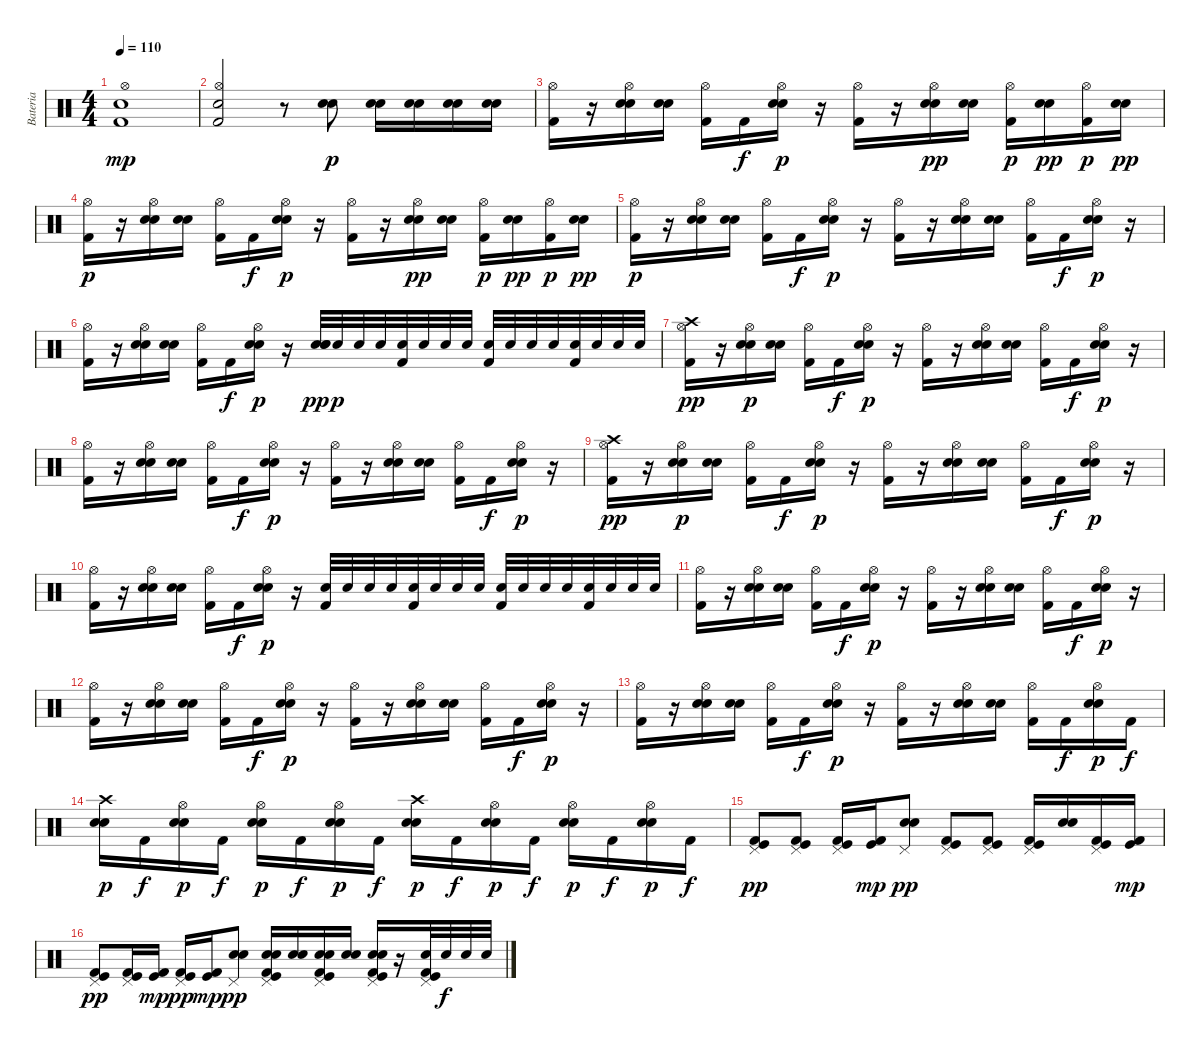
\track ("Bateria" "Bateria") {instrument percussion}
\staff {score}
\articulation defaults
\ts (4 4)
\tempo 110
\clef neutral
\ks c
("Kick (hit) 2" "Hi-Hat (open)" "Electric Snare (hit)").1{dy mp} |
("Kick (hit) 2" "Hi-Hat (open)" "Electric Snare (hit)").2 r.8 ("Electric Snare (hit)" "Snare (hit) 2").8{dy p} ("Electric Snare (hit)" "Snare (hit) 2").16 ("Electric Snare (hit)" "Snare (hit) 2").16 ("Electric Snare (hit)" "Snare (hit) 2").16 ("Electric Snare (hit)" "Snare (hit) 2").16 |
("Hi-Hat (open)" "Kick (hit) 2").16 r.16 ("Hi-Hat (open)" "Electric Snare (hit)" "Snare (hit) 2").16 ("Electric Snare (hit)" "Snare (hit) 2").16 ("Hi-Hat (open)" "Kick (hit) 2").16 "Kick (hit) 2".16{dy f} ("Hi-Hat (open)" "Electric Snare (hit)" "Snare (hit) 2").16{dy p} r.16 ("Hi-Hat (open)" "Kick (hit) 2").16 r.16 ("Hi-Hat (open)" "Electric Snare (hit)" "Snare (hit) 2").16{dy pp} ("Electric Snare (hit)" "Snare (hit) 2").16 ("Hi-Hat (open)" "Kick (hit) 2").16{dy p} ("Electric Snare (hit)" "Snare (hit) 2").16{dy pp} ("Hi-Hat (open)" "Kick (hit) 2").16{dy p} ("Electric Snare (hit)" "Snare (hit) 2").16{dy pp} |
("Hi-Hat (open)" "Kick (hit) 2").16{dy p} r.16 ("Hi-Hat (open)" "Electric Snare (hit)" "Snare (hit) 2").16 ("Electric Snare (hit)" "Snare (hit) 2").16 ("Hi-Hat (open)" "Kick (hit) 2").16 "Kick (hit) 2".16{dy f} ("Hi-Hat (open)" "Electric Snare (hit)" "Snare (hit) 2").16{dy p} r.16 ("Hi-Hat (open)" "Kick (hit) 2").16 r.16 ("Hi-Hat (open)" "Electric Snare (hit)" "Snare (hit) 2").16{dy pp} ("Electric Snare (hit)" "Snare (hit) 2").16 ("Hi-Hat (open)" "Kick (hit) 2").16{dy p} ("Electric Snare (hit)" "Snare (hit) 2").16{dy pp} ("Hi-Hat (open)" "Kick (hit) 2").16{dy p} ("Electric Snare (hit)" "Snare (hit) 2").16{dy pp} |
("Hi-Hat (open)" "Kick (hit) 2").16{dy p} r.16 ("Hi-Hat (open)" "Electric Snare (hit)" "Snare (hit) 2").16 ("Electric Snare (hit)" "Snare (hit) 2").16 ("Hi-Hat (open)" "Kick (hit) 2").16 "Kick (hit) 2".16{dy f} ("Hi-Hat (open)" "Electric Snare (hit)" "Snare (hit) 2").16{dy p} r.16 ("Hi-Hat (open)" "Kick (hit) 2").16 r.16 ("Hi-Hat (open)" "Electric Snare (hit)" "Snare (hit) 2").16 ("Electric Snare (hit)" "Snare (hit) 2").16 ("Hi-Hat (open)" "Kick (hit) 2").16 "Kick (hit) 2".16{dy f} ("Hi-Hat (open)" "Electric Snare (hit)" "Snare (hit) 2").16{dy p} r.16 |
("Hi-Hat (open)" "Kick (hit) 2").16 r.16 ("Hi-Hat (open)" "Electric Snare (hit)" "Snare (hit) 2").16 ("Electric Snare (hit)" "Snare (hit) 2").16 ("Hi-Hat (open)" "Kick (hit) 2").16 "Kick (hit) 2".16{dy f} ("Hi-Hat (open)" "Electric Snare (hit)" "Snare (hit) 2").16{dy p} r.16 ("Electric Snare (hit)" "Electric Snare (hit)" "Snare (hit) 2").32{dy pp} "Electric Snare (hit)".32{dy p} "Electric Snare (hit)".32 "Electric Snare (hit)".32 ("Kick (hit) 2" "Electric Snare (hit)").32 "Electric Snare (hit)".32 "Electric Snare (hit)".32 "Electric Snare (hit)".32 ("Kick (hit) 2" "Electric Snare (hit)").32 "Electric Snare (hit)".32 "Electric Snare (hit)".32 "Electric Snare (hit)".32 ("Kick (hit) 2" "Electric Snare (hit)").32 "Electric Snare (hit)".32 "Electric Snare (hit)".32 "Electric Snare (hit)".32 |
("Hi-Hat (open)" "Kick (hit) 2" "Crash high (hit)").16{dy pp} r.16 ("Hi-Hat (open)" "Electric Snare (hit)" "Snare (hit) 2").16{dy p} ("Electric Snare (hit)" "Snare (hit) 2").16 ("Hi-Hat (open)" "Kick (hit) 2").16 "Kick (hit) 2".16{dy f} ("Hi-Hat (open)" "Electric Snare (hit)" "Snare (hit) 2").16{dy p} r.16 ("Hi-Hat (open)" "Kick (hit) 2").16 r.16 ("Hi-Hat (open)" "Electric Snare (hit)" "Snare (hit) 2").16 ("Electric Snare (hit)" "Snare (hit) 2").16 ("Hi-Hat (open)" "Kick (hit) 2").16 "Kick (hit) 2".16{dy f} ("Hi-Hat (open)" "Electric Snare (hit)" "Snare (hit) 2").16{dy p} r.16 |
("Hi-Hat (open)" "Kick (hit) 2").16 r.16 ("Hi-Hat (open)" "Electric Snare (hit)" "Snare (hit) 2").16 ("Electric Snare (hit)" "Snare (hit) 2").16 ("Hi-Hat (open)" "Kick (hit) 2").16 "Kick (hit) 2".16{dy f} ("Hi-Hat (open)" "Electric Snare (hit)" "Snare (hit) 2").16{dy p} r.16 ("Hi-Hat (open)" "Kick (hit) 2").16 r.16 ("Hi-Hat (open)" "Electric Snare (hit)" "Snare (hit) 2").16 ("Electric Snare (hit)" "Snare (hit) 2").16 ("Hi-Hat (open)" "Kick (hit) 2").16 "Kick (hit) 2".16{dy f} ("Hi-Hat (open)" "Electric Snare (hit)" "Snare (hit) 2").16{dy p} r.16 |
("Hi-Hat (open)" "Kick (hit) 2" "Crash high (hit)").16{dy pp} r.16 ("Hi-Hat (open)" "Electric Snare (hit)" "Snare (hit) 2").16{dy p} ("Electric Snare (hit)" "Snare (hit) 2").16 ("Hi-Hat (open)" "Kick (hit) 2").16 "Kick (hit) 2".16{dy f} ("Hi-Hat (open)" "Electric Snare (hit)" "Snare (hit) 2").16{dy p} r.16 ("Hi-Hat (open)" "Kick (hit) 2").16 r.16 ("Hi-Hat (open)" "Electric Snare (hit)" "Snare (hit) 2").16 ("Electric Snare (hit)" "Snare (hit) 2").16 ("Hi-Hat (open)" "Kick (hit) 2").16 "Kick (hit) 2".16{dy f} ("Hi-Hat (open)" "Electric Snare (hit)" "Snare (hit) 2").16{dy p} r.16 |
("Hi-Hat (open)" "Kick (hit) 2").16 r.16 ("Hi-Hat (open)" "Electric Snare (hit)" "Snare (hit) 2").16 ("Electric Snare (hit)" "Snare (hit) 2").16 ("Hi-Hat (open)" "Kick (hit) 2").16 "Kick (hit) 2".16{dy f} ("Hi-Hat (open)" "Electric Snare (hit)" "Snare (hit) 2").16{dy p} r.16 ("Kick (hit) 2" "Electric Snare (hit)").32 "Electric Snare (hit)".32 "Electric Snare (hit)".32 "Electric Snare (hit)".32 ("Kick (hit) 2" "Electric Snare (hit)").32 "Electric Snare (hit)".32 "Electric Snare (hit)".32 "Electric Snare (hit)".32 ("Kick (hit) 2" "Electric Snare (hit)").32 "Electric Snare (hit)".32 "Electric Snare (hit)".32 "Electric Snare (hit)".32 ("Kick (hit) 2" "Electric Snare (hit)").32 "Electric Snare (hit)".32 "Electric Snare (hit)".32 "Electric Snare (hit)".32 |
("Hi-Hat (open)" "Kick (hit) 2").16 r.16 ("Hi-Hat (open)" "Electric Snare (hit)" "Snare (hit) 2").16 ("Electric Snare (hit)" "Snare (hit) 2").16 ("Hi-Hat (open)" "Kick (hit) 2").16 "Kick (hit) 2".16{dy f} ("Hi-Hat (open)" "Electric Snare (hit)" "Snare (hit) 2").16{dy p} r.16 ("Hi-Hat (open)" "Kick (hit) 2").16 r.16 ("Hi-Hat (open)" "Electric Snare (hit)" "Snare (hit) 2").16 ("Electric Snare (hit)" "Snare (hit) 2").16 ("Hi-Hat (open)" "Kick (hit) 2").16 "Kick (hit) 2".16{dy f} ("Hi-Hat (open)" "Electric Snare (hit)" "Snare (hit) 2").16{dy p} r.16 |
("Hi-Hat (open)" "Kick (hit) 2").16 r.16 ("Hi-Hat (open)" "Electric Snare (hit)" "Snare (hit) 2").16 ("Electric Snare (hit)" "Snare (hit) 2").16 ("Hi-Hat (open)" "Kick (hit) 2").16 "Kick (hit) 2".16{dy f} ("Hi-Hat (open)" "Electric Snare (hit)" "Snare (hit) 2").16{dy p} r.16 ("Hi-Hat (open)" "Kick (hit) 2").16 r.16 ("Hi-Hat (open)" "Electric Snare (hit)" "Snare (hit) 2").16 ("Electric Snare (hit)" "Snare (hit) 2").16 ("Hi-Hat (open)" "Kick (hit) 2").16 "Kick (hit) 2".16{dy f} ("Hi-Hat (open)" "Electric Snare (hit)" "Snare (hit) 2").16{dy p} r.16 |
("Hi-Hat (open)" "Kick (hit) 2").16 r.16 ("Hi-Hat (open)" "Electric Snare (hit)" "Snare (hit) 2").16 ("Electric Snare (hit)" "Snare (hit) 2").16 ("Hi-Hat (open)" "Kick (hit) 2").16 "Kick (hit) 2".16{dy f} ("Hi-Hat (open)" "Electric Snare (hit)" "Snare (hit) 2").16{dy p} r.16 ("Hi-Hat (open)" "Kick (hit) 2").16 r.16 ("Hi-Hat (open)" "Electric Snare (hit)" "Snare (hit) 2").16 ("Electric Snare (hit)" "Snare (hit) 2").16 ("Hi-Hat (open)" "Kick (hit) 2").16 "Kick (hit) 2".16{dy f} ("Hi-Hat (open)" "Electric Snare (hit)" "Snare (hit) 2").16{dy p} "Kick (hit) 2".16{dy f} |
("Electric Snare (hit)" "Snare (hit) 2" "Crash high (hit)").16{dy p} "Kick (hit) 2".16{dy f} ("Electric Snare (hit)" "Snare (hit) 2" "Hi-Hat (open)").16{dy p} "Kick (hit) 2".16{dy f} ("Electric Snare (hit)" "Snare (hit) 2" "Hi-Hat (open)").16{dy p} "Kick (hit) 2".16{dy f} ("Electric Snare (hit)" "Snare (hit) 2" "Hi-Hat (open)").16{dy p} "Kick (hit) 2".16{dy f} ("Electric Snare (hit)" "Snare (hit) 2" "Crash high (hit)").16{dy p} "Kick (hit) 2".16{dy f} ("Electric Snare (hit)" "Snare (hit) 2" "Hi-Hat (open)").16{dy p} "Kick (hit) 2".16{dy f} ("Electric Snare (hit)" "Snare (hit) 2" "Hi-Hat (open)").16{dy p} "Kick (hit) 2".16{dy f} ("Electric Snare (hit)" "Snare (hit) 2" "Hi-Hat (open)").16{dy p} "Kick (hit) 2".16{dy f} |
("Kick (hit) 2" "Kick (hit)" "Pedal Hi-Hat (hit)").8{dy pp} ("Kick (hit) 2" "Kick (hit)" "Pedal Hi-Hat (hit)").8 ("Kick (hit) 2" "Kick (hit)" "Pedal Hi-Hat (hit)").16 ("Kick (hit) 2" "Kick (hit)").16{dy mp} ("Electric Snare (hit)" "Snare (hit) 2" "Pedal Hi-Hat (hit)").8{dy pp} ("Kick (hit) 2" "Kick (hit)" "Pedal Hi-Hat (hit)").8 ("Kick (hit) 2" "Kick (hit)" "Pedal Hi-Hat (hit)").8 ("Kick (hit) 2" "Kick (hit)" "Pedal Hi-Hat (hit)").16 ("Electric Snare (hit)" "Snare (hit) 2").16 ("Kick (hit) 2" "Kick (hit)" "Pedal Hi-Hat (hit)").16 ("Kick (hit) 2" "Kick (hit)").16{dy mp} |
("Kick (hit) 2" "Kick (hit)" "Pedal Hi-Hat (hit)").8{dy pp} ("Kick (hit) 2" "Kick (hit)" "Pedal Hi-Hat (hit)").16 ("Kick (hit) 2" "Kick (hit)").16{dy mp} ("Kick (hit) 2" "Kick (hit)" "Pedal Hi-Hat (hit)").16{dy pp} ("Kick (hit) 2" "Kick (hit)").16{dy mp} ("Electric Snare (hit)" "Snare (hit) 2" "Pedal Hi-Hat (hit)").8{dy pp} ("Kick (hit) 2" "Electric Snare (hit)" "Snare (hit) 2" "Kick (hit)" "Pedal Hi-Hat (hit)").16 ("Electric Snare (hit)" "Snare (hit) 2").16 ("Kick (hit) 2" "Electric Snare (hit)" "Snare (hit) 2" "Kick (hit)" "Pedal Hi-Hat (hit)").16 ("Electric Snare (hit)" "Snare (hit) 2").16 ("Kick (hit) 2" "Electric Snare (hit)" "Snare (hit) 2" "Kick (hit)" "Pedal Hi-Hat (hit)").16 r.16 ("Kick (hit) 2" "Electric Snare (hit)" "Kick (hit)" "Pedal Hi-Hat (hit)").32 "Electric Snare (hit)".32{dy f} "Electric Snare (hit)".32 "Electric Snare (hit)".32
